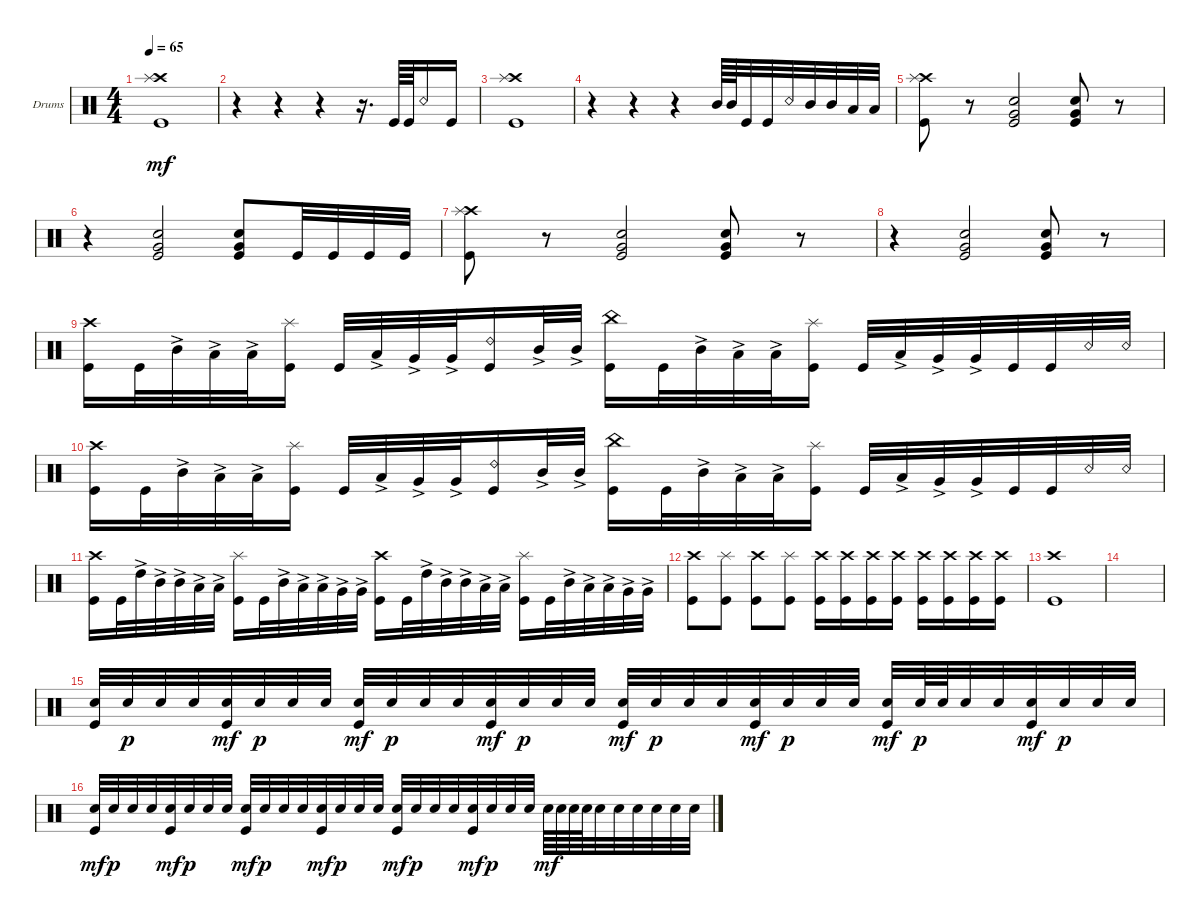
\defaultSystemsLayout 4
\bracketExtendMode groupsimilarinstruments
\firstSystemTrackNameOrientation horizontal
\otherSystemsTrackNameOrientation horizontal
\track ("Drumkit" "Drums") {instrument percussion}
\staff {score}
\articulation defaults
\ts (4 4)
\tempo 65
\clef neutral
\ks c
("Kick (hit)" "Crash high (hit)" "Splash (hit)").1{dy mf} |
r.4 r.4 r.4 r.16{d} "Kick (hit)".64 "Kick (hit)".64 "Snare (rim shot)".16 "Kick (hit)".16 |
("Kick (hit)" "Crash high (hit)" "Splash (hit)").1 |
r.4 r.4 r.4 "Mid Tom (hit)".64 "Mid Tom (hit)".64 "Kick (hit)".32 "Kick (hit)".32 "Snare (rim shot)".32 "Mid Tom (hit)".32 "Mid Tom (hit)".32 "Low Tom (hit)".32 "Low Tom (hit)".32 |
("Kick (hit)" "Crash high (hit)" "Splash (hit)").8 r.8 ("Very Low Tom (hit)" "Kick (hit)" "Snare (hit) 2").2 ("Very Low Tom (hit)" "Kick (hit)" "Snare (hit) 2").8 r.8 |
r.4 ("Very Low Tom (hit)" "Kick (hit)" "Snare (hit) 2").2 ("Kick (hit)" "Snare (hit) 2" "Very Low Tom (hit)").8 "Kick (hit)".32 "Kick (hit)".32 "Kick (hit)".32 "Kick (hit)".32 |
("Kick (hit)" "Crash high (hit)" "Splash (hit)").8 r.8 ("Very Low Tom (hit)" "Kick (hit)" "Snare (hit) 2").2 ("Very Low Tom (hit)" "Kick (hit)" "Snare (hit) 2").8 r.8 |
r.4 ("Very Low Tom (hit)" "Kick (hit)" "Snare (hit) 2").2 ("Kick (hit)" "Snare (hit) 2" "Very Low Tom (hit)").8 r.8 |
("Kick (hit)" "Crash high (hit)").16 "Kick (hit)".32 "Mid Tom (hit)"{ac}.32 "Low Tom (hit)"{ac}.32 "Low Tom (hit)"{ac}.32 ("Kick (hit)" "Splash (hit)").16 "Kick (hit)".32 "Low Tom (hit)"{ac}.32 "Very Low Tom (hit)"{ac}.32 "Very Low Tom (hit)"{ac}.32 ("Kick (hit)" "Ride (bell) 2").16 "Mid Tom (hit)"{ac}.32 "Mid Tom (hit)"{ac}.32 ("Kick (hit)" "China (hit)").16 "Kick (hit)".32 "Mid Tom (hit)"{ac}.32 "Low Tom (hit)"{ac}.32 "Low Tom (hit)"{ac}.32 ("Kick (hit)" "Splash (hit)").16 "Kick (hit)".32 "Low Tom (hit)"{ac}.32 "Very Low Tom (hit)"{ac}.32 "Very Low Tom (hit)"{ac}.32 "Kick (hit)".32 "Kick (hit)".32 "Snare (rim shot)".32 "Snare (rim shot)".32 |
("Kick (hit)" "Crash high (hit)").16 "Kick (hit)".32 "Mid Tom (hit)"{ac}.32 "Low Tom (hit)"{ac}.32 "Low Tom (hit)"{ac}.32 ("Kick (hit)" "Splash (hit)").16 "Kick (hit)".32 "Low Tom (hit)"{ac}.32 "Very Low Tom (hit)"{ac}.32 "Very Low Tom (hit)"{ac}.32 ("Kick (hit)" "Ride (bell) 2").16 "Mid Tom (hit)"{ac}.32 "Mid Tom (hit)"{ac}.32 ("Kick (hit)" "China (hit)").16 "Kick (hit)".32 "Mid Tom (hit)"{ac}.32 "Low Tom (hit)"{ac}.32 "Low Tom (hit)"{ac}.32 ("Kick (hit)" "Splash (hit)").16 "Kick (hit)".32 "Low Tom (hit)"{ac}.32 "Very Low Tom (hit)"{ac}.32 "Very Low Tom (hit)"{ac}.32 "Kick (hit)".32 "Kick (hit)".32 "Snare (rim shot)".32 "Snare (rim shot)".32 |
("Kick (hit)" "Crash high (hit)").16 "Kick (hit)".32 "High Tom (hit)"{ac}.32 "Mid Tom (hit)"{ac}.32 "Mid Tom (hit)"{ac}.32 "Low Tom (hit)"{ac}.32 "Low Tom (hit)"{ac}.32 ("Kick (hit)" "Splash (hit)").16 "Kick (hit)".32 "Mid Tom (hit)"{ac}.32 "Low Tom (hit)"{ac}.32 "Low Tom (hit)"{ac}.32 "Very Low Tom (hit)"{ac}.32 "Very Low Tom (hit)"{ac}.32 ("Kick (hit)" "Crash high (hit)").16 "Kick (hit)".32 "High Tom (hit)"{ac}.32 "Mid Tom (hit)"{ac}.32 "Mid Tom (hit)"{ac}.32 "Low Tom (hit)"{ac}.32 "Low Tom (hit)"{ac}.32 ("Kick (hit)" "Splash (hit)").16 "Kick (hit)".32 "Mid Tom (hit)"{ac}.32 "Low Tom (hit)"{ac}.32 "Low Tom (hit)"{ac}.32 "Very Low Tom (hit)"{ac}.32 "Very Low Tom (hit)"{ac}.32 |
("Kick (hit)" "Crash high (hit)").8 ("Kick (hit)" "Splash (hit)").8 ("Kick (hit)" "Crash high (hit)").8 ("Kick (hit)" "Splash (hit)").8 ("Kick (hit)" "Crash high (hit)").16 ("Kick (hit)" "Crash high (hit)").16 ("Kick (hit)" "Crash high (hit)").16 ("Kick (hit)" "Crash high (hit)").16 ("Kick (hit)" "Crash high (hit)").16 ("Kick (hit)" "Crash high (hit)").16 ("Kick (hit)" "Crash high (hit)").16 ("Kick (hit)" "Crash high (hit)").16 |
("Kick (hit)" "Crash high (hit)").1 |
|
("Snare (hit) 2" "Kick (hit)").32 "Snare (hit) 2".32{dy p} "Snare (hit) 2".32 "Snare (hit) 2".32 ("Snare (hit) 2" "Kick (hit)").32{dy mf} "Snare (hit) 2".32{dy p} "Snare (hit) 2".32 "Snare (hit) 2".32 ("Snare (hit) 2" "Kick (hit)").32{dy mf} "Snare (hit) 2".32{dy p} "Snare (hit) 2".32 "Snare (hit) 2".32 ("Snare (hit) 2" "Kick (hit)").32{dy mf} "Snare (hit) 2".32{dy p} "Snare (hit) 2".32 "Snare (hit) 2".32 ("Snare (hit) 2" "Kick (hit)").32{dy mf} "Snare (hit) 2".32{dy p} "Snare (hit) 2".32 "Snare (hit) 2".32 ("Snare (hit) 2" "Kick (hit)").32{dy mf} "Snare (hit) 2".32{dy p} "Snare (hit) 2".32 "Snare (hit) 2".32 ("Snare (hit) 2" "Kick (hit)").32{dy mf} "Snare (hit) 2".64{dy p} "Snare (hit) 2".64 "Snare (hit) 2".32 "Snare (hit) 2".32 ("Snare (hit) 2" "Kick (hit)").32{dy mf} "Snare (hit) 2".32{dy p} "Snare (hit) 2".32 "Snare (hit) 2".32 |
("Snare (hit) 2" "Kick (hit)").32{dy mf} "Snare (hit) 2".32{dy p} "Snare (hit) 2".32 "Snare (hit) 2".32 ("Snare (hit) 2" "Kick (hit)").32{dy mf} "Snare (hit) 2".32{dy p} "Snare (hit) 2".32 "Snare (hit) 2".32 ("Snare (hit) 2" "Kick (hit)").32{dy mf} "Snare (hit) 2".32{dy p} "Snare (hit) 2".32 "Snare (hit) 2".32 ("Snare (hit) 2" "Kick (hit)").32{dy mf} "Snare (hit) 2".32{dy p} "Snare (hit) 2".32 "Snare (hit) 2".32 ("Snare (hit) 2" "Kick (hit)").32{dy mf} "Snare (hit) 2".32{dy p} "Snare (hit) 2".32 "Snare (hit) 2".32 ("Snare (hit) 2" "Kick (hit)").32{dy mf} "Snare (hit) 2".32{dy p} "Snare (hit) 2".32 "Snare (hit) 2".32 "Snare (hit) 2".64{dy mf} "Snare (hit) 2".64 "Snare (hit) 2".64 "Snare (hit) 2".64 "Snare (hit) 2".32 "Snare (hit) 2".32 "Snare (hit) 2".32 "Snare (hit) 2".32 "Snare (hit) 2".32 "Snare (hit) 2".32
